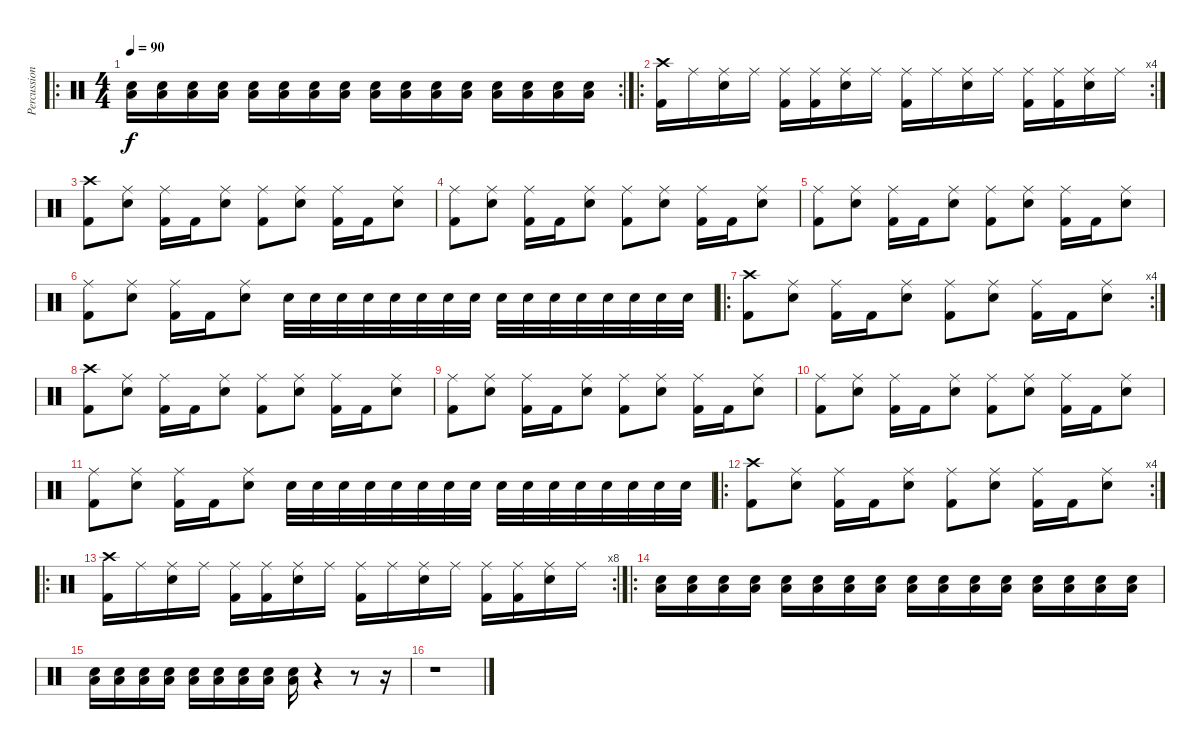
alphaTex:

\track ("Percussion" "Percussion") {instrument percussion}
\staff {score}
\articulation defaults
\ro
\rc 2
\ts (4 4)
\tempo 90
\clef neutral
\ks c
("Low Floor Tom (hit)" "Snare (hit) 2").16{dy f} ("Low Floor Tom (hit)" "Snare (hit) 2").16 ("Low Floor Tom (hit)" "Snare (hit) 2").16 ("Low Floor Tom (hit)" "Snare (hit) 2").16 ("Low Floor Tom (hit)" "Snare (hit) 2").16 ("Low Floor Tom (hit)" "Snare (hit) 2").16 ("Low Floor Tom (hit)" "Snare (hit) 2").16 ("Low Floor Tom (hit)" "Snare (hit) 2").16 ("Low Floor Tom (hit)" "Snare (hit) 2").16 ("Low Floor Tom (hit)" "Snare (hit) 2").16 ("Low Floor Tom (hit)" "Snare (hit) 2").16 ("Low Floor Tom (hit)" "Snare (hit) 2").16 ("Low Floor Tom (hit)" "Snare (hit) 2").16 ("Low Floor Tom (hit)" "Snare (hit) 2").16 ("Low Floor Tom (hit)" "Snare (hit) 2").16 ("Low Floor Tom (hit)" "Snare (hit) 2").16 |
\ro
\rc 4
("Kick (hit) 2" "Crash high (hit)").16 "Ride (middle)".16 ("Snare (hit) 2" "Ride (middle)").16 "Ride (middle)".16 ("Kick (hit) 2" "Ride (middle)").16 ("Kick (hit) 2" "Ride (middle)").16 ("Snare (hit) 2" "Ride (middle)").16 "Ride (middle)".16 ("Kick (hit) 2" "Ride (middle)").16 "Ride (middle)".16 ("Snare (hit) 2" "Ride (middle)").16 "Ride (middle)".16 ("Kick (hit) 2" "Ride (middle)").16 ("Kick (hit) 2" "Ride (middle)").16 ("Snare (hit) 2" "Ride (middle)").16 "Ride (middle)".16 |
("Kick (hit) 2" "Crash high (hit)").8 ("Snare (hit) 2" "Ride (middle)").8 ("Kick (hit) 2" "Ride (middle)").16 "Kick (hit) 2".16 ("Snare (hit) 2" "Ride (middle)").8 ("Kick (hit) 2" "Ride (middle)").8 ("Snare (hit) 2" "Ride (middle)").8 ("Kick (hit) 2" "Ride (middle)").16 "Kick (hit) 2".16 ("Snare (hit) 2" "Ride (middle)").8 |
("Kick (hit) 2" "Ride (middle)").8 ("Snare (hit) 2" "Ride (middle)").8 ("Kick (hit) 2" "Ride (middle)").16 "Kick (hit) 2".16 ("Snare (hit) 2" "Ride (middle)").8 ("Kick (hit) 2" "Ride (middle)").8 ("Snare (hit) 2" "Ride (middle)").8 ("Kick (hit) 2" "Ride (middle)").16 "Kick (hit) 2".16 ("Snare (hit) 2" "Ride (middle)").8 |
("Kick (hit) 2" "Ride (middle)").8 ("Snare (hit) 2" "Ride (middle)").8 ("Kick (hit) 2" "Ride (middle)").16 "Kick (hit) 2".16 ("Snare (hit) 2" "Ride (middle)").8 ("Kick (hit) 2" "Ride (middle)").8 ("Snare (hit) 2" "Ride (middle)").8 ("Kick (hit) 2" "Ride (middle)").16 "Kick (hit) 2".16 ("Snare (hit) 2" "Ride (middle)").8 |
("Kick (hit) 2" "Ride (middle)").8 ("Snare (hit) 2" "Ride (middle)").8 ("Kick (hit) 2" "Ride (middle)").16 "Kick (hit) 2".16 ("Snare (hit) 2" "Ride (middle)").8 "Snare (hit) 2".32 "Snare (hit) 2".32 "Snare (hit) 2".32 "Snare (hit) 2".32 "Snare (hit) 2".32 "Snare (hit) 2".32 "Snare (hit) 2".32 "Snare (hit) 2".32 "Snare (hit) 2".32 "Snare (hit) 2".32 "Snare (hit) 2".32 "Snare (hit) 2".32 "Snare (hit) 2".32 "Snare (hit) 2".32 "Snare (hit) 2".32 "Snare (hit) 2".32 |
\ro
\rc 4
("Kick (hit) 2" "Crash high (hit)").8 ("Snare (hit) 2" "Ride (middle)").8 ("Kick (hit) 2" "Ride (middle)").16 "Kick (hit) 2".16 ("Snare (hit) 2" "Ride (middle)").8 ("Kick (hit) 2" "Ride (middle)").8 ("Snare (hit) 2" "Ride (middle)").8 ("Kick (hit) 2" "Ride (middle)").16 "Kick (hit) 2".16 ("Snare (hit) 2" "Ride (middle)").8 |
("Kick (hit) 2" "Crash high (hit)").8 ("Snare (hit) 2" "Ride (middle)").8 ("Kick (hit) 2" "Ride (middle)").16 "Kick (hit) 2".16 ("Snare (hit) 2" "Ride (middle)").8 ("Kick (hit) 2" "Ride (middle)").8 ("Snare (hit) 2" "Ride (middle)").8 ("Kick (hit) 2" "Ride (middle)").16 "Kick (hit) 2".16 ("Snare (hit) 2" "Ride (middle)").8 |
("Kick (hit) 2" "Ride (middle)").8 ("Snare (hit) 2" "Ride (middle)").8 ("Kick (hit) 2" "Ride (middle)").16 "Kick (hit) 2".16 ("Snare (hit) 2" "Ride (middle)").8 ("Kick (hit) 2" "Ride (middle)").8 ("Snare (hit) 2" "Ride (middle)").8 ("Kick (hit) 2" "Ride (middle)").16 "Kick (hit) 2".16 ("Snare (hit) 2" "Ride (middle)").8 |
("Kick (hit) 2" "Ride (middle)").8 ("Snare (hit) 2" "Ride (middle)").8 ("Kick (hit) 2" "Ride (middle)").16 "Kick (hit) 2".16 ("Snare (hit) 2" "Ride (middle)").8 ("Kick (hit) 2" "Ride (middle)").8 ("Snare (hit) 2" "Ride (middle)").8 ("Kick (hit) 2" "Ride (middle)").16 "Kick (hit) 2".16 ("Snare (hit) 2" "Ride (middle)").8 |
("Kick (hit) 2" "Ride (middle)").8 ("Snare (hit) 2" "Ride (middle)").8 ("Kick (hit) 2" "Ride (middle)").16 "Kick (hit) 2".16 ("Snare (hit) 2" "Ride (middle)").8 "Snare (hit) 2".32 "Snare (hit) 2".32 "Snare (hit) 2".32 "Snare (hit) 2".32 "Snare (hit) 2".32 "Snare (hit) 2".32 "Snare (hit) 2".32 "Snare (hit) 2".32 "Snare (hit) 2".32 "Snare (hit) 2".32 "Snare (hit) 2".32 "Snare (hit) 2".32 "Snare (hit) 2".32 "Snare (hit) 2".32 "Snare (hit) 2".32 "Snare (hit) 2".32 |
\ro
\rc 4
("Kick (hit) 2" "Crash high (hit)").8 ("Snare (hit) 2" "Ride (middle)").8 ("Kick (hit) 2" "Ride (middle)").16 "Kick (hit) 2".16 ("Snare (hit) 2" "Ride (middle)").8 ("Kick (hit) 2" "Ride (middle)").8 ("Snare (hit) 2" "Ride (middle)").8 ("Kick (hit) 2" "Ride (middle)").16 "Kick (hit) 2".16 ("Snare (hit) 2" "Ride (middle)").8 |
\ro
\rc 8
("Kick (hit) 2" "Crash high (hit)").16 "Ride (middle)".16 ("Snare (hit) 2" "Ride (middle)").16 "Ride (middle)".16 ("Kick (hit) 2" "Ride (middle)").16 ("Kick (hit) 2" "Ride (middle)").16 ("Snare (hit) 2" "Ride (middle)").16 "Ride (middle)".16 ("Kick (hit) 2" "Ride (middle)").16 "Ride (middle)".16 ("Snare (hit) 2" "Ride (middle)").16 "Ride (middle)".16 ("Kick (hit) 2" "Ride (middle)").16 ("Kick (hit) 2" "Ride (middle)").16 ("Snare (hit) 2" "Ride (middle)").16 "Ride (middle)".16 |
\ro
("Low Floor Tom (hit)" "Snare (hit) 2").16 ("Low Floor Tom (hit)" "Snare (hit) 2").16 ("Low Floor Tom (hit)" "Snare (hit) 2").16 ("Low Floor Tom (hit)" "Snare (hit) 2").16 ("Low Floor Tom (hit)" "Snare (hit) 2").16 ("Low Floor Tom (hit)" "Snare (hit) 2").16 ("Low Floor Tom (hit)" "Snare (hit) 2").16 ("Low Floor Tom (hit)" "Snare (hit) 2").16 ("Low Floor Tom (hit)" "Snare (hit) 2").16 ("Low Floor Tom (hit)" "Snare (hit) 2").16 ("Low Floor Tom (hit)" "Snare (hit) 2").16 ("Low Floor Tom (hit)" "Snare (hit) 2").16 ("Low Floor Tom (hit)" "Snare (hit) 2").16 ("Low Floor Tom (hit)" "Snare (hit) 2").16 ("Low Floor Tom (hit)" "Snare (hit) 2").16 ("Low Floor Tom (hit)" "Snare (hit) 2").16 |
("Low Floor Tom (hit)" "Snare (hit) 2").16 ("Low Floor Tom (hit)" "Snare (hit) 2").16 ("Low Floor Tom (hit)" "Snare (hit) 2").16 ("Low Floor Tom (hit)" "Snare (hit) 2").16 ("Low Floor Tom (hit)" "Snare (hit) 2").16 ("Low Floor Tom (hit)" "Snare (hit) 2").16 ("Low Floor Tom (hit)" "Snare (hit) 2").16 ("Low Floor Tom (hit)" "Snare (hit) 2").16 ("Low Floor Tom (hit)" "Snare (hit) 2").16 r.4 r.8 r.16 |
r.1
